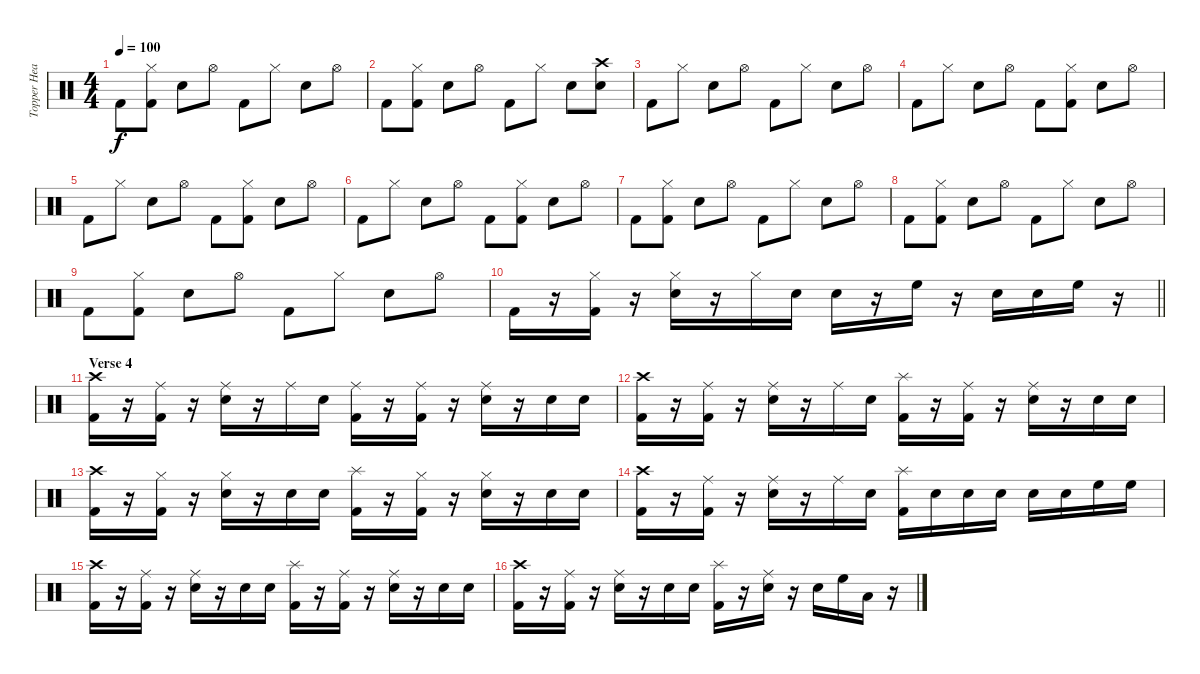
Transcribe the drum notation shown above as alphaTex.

\track ("Topper Headon" "Topper Hea") {instrument percussion}
\staff {score}
\articulation defaults
\ts (4 4)
\tempo 100
\clef neutral
\ks c "Kick (hit) 2".8{dy f}
("Hi-Hat (closed)" "Kick (hit) 2").8 "Snare (hit) 2".8 "Hi-Hat (open)".8 "Kick (hit) 2".8 "Hi-Hat (closed)".8 "Snare (hit) 2".8 "Hi-Hat (open)".8 |
"Kick (hit) 2".8 ("Hi-Hat (closed)" "Kick (hit) 2").8 "Snare (hit) 2".8 "Hi-Hat (open)".8 "Kick (hit) 2".8 "Hi-Hat (closed)".8 "Snare (hit) 2".8 ("Crash high (hit)" "Snare (hit) 2").8 |
"Kick (hit) 2".8 "Hi-Hat (closed)".8 "Snare (hit) 2".8 "Hi-Hat (open)".8 "Kick (hit) 2".8 "Hi-Hat (closed)".8 "Snare (hit) 2".8 "Hi-Hat (open)".8 |
"Kick (hit) 2".8 "Hi-Hat (closed)".8 "Snare (hit) 2".8 "Hi-Hat (open)".8 "Kick (hit) 2".8 ("Hi-Hat (closed)" "Kick (hit) 2").8 "Snare (hit) 2".8 "Hi-Hat (open)".8 |
"Kick (hit) 2".8 "Hi-Hat (closed)".8 "Snare (hit) 2".8 "Hi-Hat (open)".8 "Kick (hit) 2".8 ("Hi-Hat (closed)" "Kick (hit) 2").8 "Snare (hit) 2".8 "Hi-Hat (open)".8 |
"Kick (hit) 2".8 "Hi-Hat (closed)".8 "Snare (hit) 2".8 "Hi-Hat (open)".8 "Kick (hit) 2".8 ("Hi-Hat (closed)" "Kick (hit) 2").8 "Snare (hit) 2".8 "Hi-Hat (open)".8 |
"Kick (hit) 2".8 ("Hi-Hat (closed)" "Kick (hit) 2").8 "Snare (hit) 2".8 "Hi-Hat (open)".8 "Kick (hit) 2".8 "Hi-Hat (closed)".8 "Snare (hit) 2".8 "Hi-Hat (open)".8 |
"Kick (hit) 2".8 ("Hi-Hat (closed)" "Kick (hit) 2").8 "Snare (hit) 2".8 "Hi-Hat (open)".8 "Kick (hit) 2".8 "Hi-Hat (closed)".8 "Snare (hit) 2".8 "Hi-Hat (open)".8 |
"Kick (hit) 2".8 ("Hi-Hat (closed)" "Kick (hit) 2").8 "Snare (hit) 2".8 "Hi-Hat (open)".8 "Kick (hit) 2".8 "Hi-Hat (closed)".8 "Snare (hit) 2".8 "Hi-Hat (open)".8 |
\barLineRight lightlight "Kick (hit) 2".16
r.16 ("Hi-Hat (closed)" "Kick (hit) 2").16 r.16 ("Hi-Hat (closed)" "Snare (hit) 2").16 r.16 "Hi-Hat (closed)".16 "Snare (hit) 2".16 "Snare (hit) 2".16 r.16 "High Floor Tom (hit)".16 r.16 "Snare (hit) 2".16 "Snare (hit) 2".16 "High Floor Tom (hit)".16 r.16 |
\section ("" "Verse 4")
("Crash high (hit)" "Kick (hit) 2").16 r.16 ("Ride (middle)" "Kick (hit) 2").16 r.16 ("Ride (middle)" "Snare (hit) 2").16 r.16 "Ride (middle)".16 "Snare (hit) 2".16 ("Ride (middle)" "Kick (hit) 2").16 r.16 ("Ride (middle)" "Kick (hit) 2").16 r.16 ("Ride (middle)" "Snare (hit) 2").16 r.16 "Snare (hit) 2".16 "Snare (hit) 2".16 |
("Crash high (hit)" "Kick (hit) 2").16 r.16 ("Ride (middle)" "Kick (hit) 2").16 r.16 ("Ride (middle)" "Snare (hit) 2").16 r.16 "Ride (middle)".16 "Snare (hit) 2".16 ("Splash (hit)" "Kick (hit) 2").16 r.16 ("Ride (middle)" "Kick (hit) 2").16 r.16 ("Ride (middle)" "Snare (hit) 2").16 r.16 "Snare (hit) 2".16 "Snare (hit) 2".16 |
("Crash high (hit)" "Kick (hit) 2").16 r.16 ("Hi-Hat (closed)" "Kick (hit) 2").16 r.16 ("Hi-Hat (closed)" "Snare (hit) 2").16 r.16 "Snare (hit) 2".16 "Snare (hit) 2".16 ("Splash (hit)" "Kick (hit) 2").16 r.16 ("Hi-Hat (closed)" "Kick (hit) 2").16 r.16 ("Hi-Hat (closed)" "Snare (hit) 2").16 r.16 "Snare (hit) 2".16 "Snare (hit) 2".16 |
("Crash high (hit)" "Kick (hit) 2").16 r.16 ("Ride (middle)" "Kick (hit) 2").16 r.16 ("Ride (middle)" "Snare (hit) 2").16 r.16 "Ride (middle)".16 "Snare (hit) 2".16 ("Splash (hit)" "Kick (hit) 2").16 "Snare (hit) 2".16 "Snare (hit) 2".16 "Snare (hit) 2".16 "Snare (hit) 2".16 "Snare (hit) 2".16 "High Floor Tom (hit)".16 "High Floor Tom (hit)".16 |
("Crash high (hit)" "Kick (hit) 2").16 r.16 ("Ride (middle)" "Kick (hit) 2").16 r.16 ("Ride (middle)" "Snare (hit) 2").16 r.16 "Snare (hit) 2".16 "Snare (hit) 2".16 ("Splash (hit)" "Kick (hit) 2").16 r.16 ("Ride (middle)" "Kick (hit) 2").16 r.16 ("Ride (middle)" "Snare (hit) 2").16 r.16 "Snare (hit) 2".16 "Snare (hit) 2".16 |
("Crash high (hit)" "Kick (hit) 2").16 r.16 ("Ride (middle)" "Kick (hit) 2").16 r.16 ("Ride (middle)" "Snare (hit) 2").16 r.16 "Snare (hit) 2".16 "Snare (hit) 2".16 ("Splash (hit)" "Kick (hit) 2").16 r.16 ("Ride (middle)" "Snare (hit) 2").16 r.16 "Snare (hit) 2".16 "High Floor Tom (hit)".16 "Low Floor Tom (hit)".16 r.16
